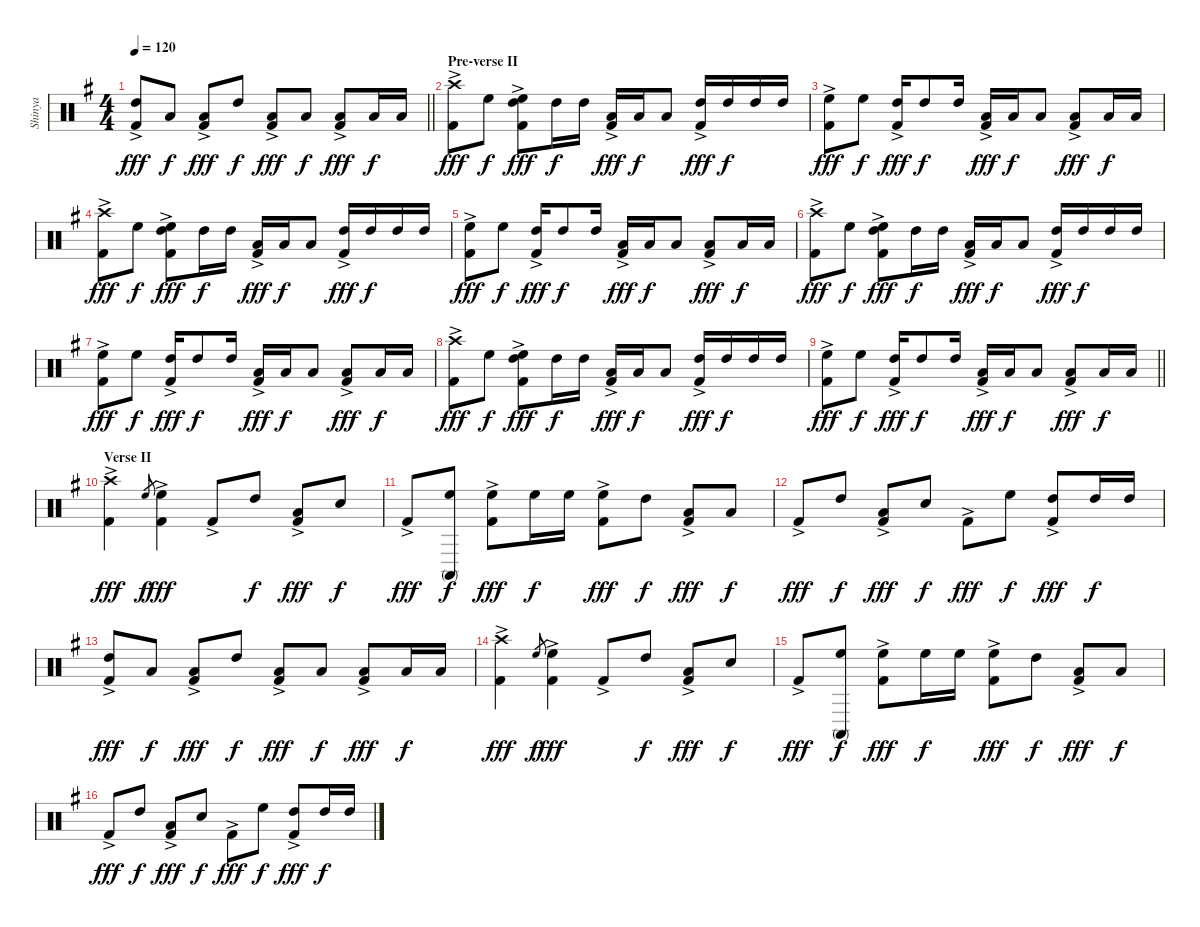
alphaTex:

\track ("Shinya" "Shinya") {instrument percussion}
\staff {score}
\articulation defaults
\ts (4 4)
\tempo 120
\clef neutral
\barLineRight lightlight
\ks g
("High Tom (hit)" "Kick (hit) 2"{ac}).8{dy fff} "Low Tom (hit)".8{dy f} ("Low Floor Tom (hit)" "Kick (hit) 2"{ac}).8{dy fff} "High Tom (hit)".8{dy f} ("Low Tom (hit)" "Kick (hit) 2"{ac}).8{dy fff} "Low Floor Tom (hit)".8{dy f} ("Low Floor Tom (hit)" "Kick (hit) 2"{ac}).8{dy fff} "Low Floor Tom (hit)".16{dy f} "Low Floor Tom (hit)".16 |
\section ("" "Pre-verse II")
("Crash high (hit)"{ac} "Kick (hit) 2"{ac}).8{dy fff} "High Floor Tom (hit)".8{dy f} ("High Floor Tom (hit)" "High Tom (hit)" "Kick (hit) 2"{ac}).8{dy fff} "High Tom (hit)".16{dy f} "High Tom (hit)".16 ("Low Tom (hit)" "Kick (hit) 2"{ac}).16{dy fff} "Low Tom (hit)".16{dy f} "Low Tom (hit)".8 ("High Tom (hit)" "Kick (hit) 2"{ac}).16{dy fff} "High Tom (hit)".16{dy f} "High Tom (hit)".16 "High Tom (hit)".16 |
("High Floor Tom (hit)" "Kick (hit) 2"{ac}).8{dy fff} "High Floor Tom (hit)".8{dy f} ("High Tom (hit)" "Kick (hit) 2"{ac}).16{dy fff} "High Tom (hit)".8{dy f} "High Tom (hit)".16 ("Low Tom (hit)" "Kick (hit) 2"{ac}).16{dy fff} "Low Tom (hit)".16{dy f} "Low Tom (hit)".8 ("Low Floor Tom (hit)" "Kick (hit) 2"{ac}).8{dy fff} "Low Floor Tom (hit)".16{dy f} "Low Floor Tom (hit)".16 |
("Crash high (hit)"{ac} "Kick (hit) 2"{ac}).8{dy fff} "High Floor Tom (hit)".8{dy f} ("High Floor Tom (hit)" "High Tom (hit)" "Kick (hit) 2"{ac}).8{dy fff} "High Tom (hit)".16{dy f} "High Tom (hit)".16 ("Low Tom (hit)" "Kick (hit) 2"{ac}).16{dy fff} "Low Tom (hit)".16{dy f} "Low Tom (hit)".8 ("High Tom (hit)" "Kick (hit) 2"{ac}).16{dy fff} "High Tom (hit)".16{dy f} "High Tom (hit)".16 "High Tom (hit)".16 |
("High Floor Tom (hit)" "Kick (hit) 2"{ac}).8{dy fff} "High Floor Tom (hit)".8{dy f} ("High Tom (hit)" "Kick (hit) 2"{ac}).16{dy fff} "High Tom (hit)".8{dy f} "High Tom (hit)".16 ("Low Tom (hit)" "Kick (hit) 2"{ac}).16{dy fff} "Low Tom (hit)".16{dy f} "Low Tom (hit)".8 ("Low Floor Tom (hit)" "Kick (hit) 2"{ac}).8{dy fff} "Low Floor Tom (hit)".16{dy f} "Low Floor Tom (hit)".16 |
("Crash high (hit)"{ac} "Kick (hit) 2"{ac}).8{dy fff} "High Floor Tom (hit)".8{dy f} ("High Floor Tom (hit)" "High Tom (hit)" "Kick (hit) 2"{ac}).8{dy fff} "High Tom (hit)".16{dy f} "High Tom (hit)".16 ("Low Tom (hit)" "Kick (hit) 2"{ac}).16{dy fff} "Low Tom (hit)".16{dy f} "Low Tom (hit)".8 ("High Tom (hit)" "Kick (hit) 2"{ac}).16{dy fff} "High Tom (hit)".16{dy f} "High Tom (hit)".16 "High Tom (hit)".16 |
("High Floor Tom (hit)" "Kick (hit) 2"{ac}).8{dy fff} "High Floor Tom (hit)".8{dy f} ("High Tom (hit)" "Kick (hit) 2"{ac}).16{dy fff} "High Tom (hit)".8{dy f} "High Tom (hit)".16 ("Low Tom (hit)" "Kick (hit) 2"{ac}).16{dy fff} "Low Tom (hit)".16{dy f} "Low Tom (hit)".8 ("Low Floor Tom (hit)" "Kick (hit) 2"{ac}).8{dy fff} "Low Floor Tom (hit)".16{dy f} "Low Floor Tom (hit)".16 |
("Crash high (hit)"{ac} "Kick (hit) 2"{ac}).8{dy fff} "High Floor Tom (hit)".8{dy f} ("High Floor Tom (hit)" "High Tom (hit)" "Kick (hit) 2"{ac}).8{dy fff} "High Tom (hit)".16{dy f} "High Tom (hit)".16 ("Low Tom (hit)" "Kick (hit) 2"{ac}).16{dy fff} "Low Tom (hit)".16{dy f} "Low Tom (hit)".8 ("High Tom (hit)" "Kick (hit) 2"{ac}).16{dy fff} "High Tom (hit)".16{dy f} "High Tom (hit)".16 "High Tom (hit)".16 |
\barLineRight lightlight
("High Floor Tom (hit)" "Kick (hit) 2"{ac}).8{dy fff} "High Floor Tom (hit)".8{dy f} ("High Tom (hit)" "Kick (hit) 2"{ac}).16{dy fff} "High Tom (hit)".8{dy f} "High Tom (hit)".16 ("Low Tom (hit)" "Kick (hit) 2"{ac}).16{dy fff} "Low Tom (hit)".16{dy f} "Low Tom (hit)".8 ("Low Floor Tom (hit)" "Kick (hit) 2"{ac}).8{dy fff} "Low Floor Tom (hit)".16{dy f} "Low Floor Tom (hit)".16 |
\section ("" "Verse II")
("Crash high (hit)"{ac} "Kick (hit) 2").4{dy fff} "High Floor Tom (hit)".8{gr dy f} ("High Floor Tom (hit)" "Kick (hit) 2"{ac}).4{dy fff} "Kick (hit) 2"{ac}.8 "High Tom (hit)".8{dy f} ("Low Tom (hit)" "Kick (hit) 2"{ac}).8{dy fff} "Snare (hit) 2".8{dy f} |
"Kick (hit) 2"{ac}.8{dy fff} ("Conga high (mute)" "High Floor Tom (hit)").8{dy f} ("High Floor Tom (hit)" "Kick (hit) 2"{ac}).8{dy fff} "High Floor Tom (hit)".16{dy f} "High Floor Tom (hit)".16 ("High Floor Tom (hit)" "Kick (hit) 2"{ac}).8{dy fff} "High Tom (hit)".8{dy f} ("Low Tom (hit)" "Kick (hit) 2"{ac}).8{dy fff} "Low Floor Tom (hit)".8{dy f} |
"Kick (hit) 2"{ac}.8{dy fff} "High Tom (hit)".8{dy f} ("Low Tom (hit)" "Kick (hit) 2"{ac}).8{dy fff} "Snare (hit) 2".8{dy f} "Kick (hit) 2"{ac}.8{dy fff} "High Floor Tom (hit)".8{dy f} ("High Tom (hit)" "Kick (hit) 2"{ac}).8{dy fff} "High Tom (hit)".16{dy f} "High Tom (hit)".16 |
("High Tom (hit)" "Kick (hit) 2"{ac}).8{dy fff} "Low Tom (hit)".8{dy f} ("Low Floor Tom (hit)" "Kick (hit) 2"{ac}).8{dy fff} "High Tom (hit)".8{dy f} ("Low Tom (hit)" "Kick (hit) 2"{ac}).8{dy fff} "Low Floor Tom (hit)".8{dy f} ("Low Floor Tom (hit)" "Kick (hit) 2"{ac}).8{dy fff} "Low Floor Tom (hit)".16{dy f} "Low Floor Tom (hit)".16 |
("Crash high (hit)"{ac} "Kick (hit) 2").4{dy fff} "High Floor Tom (hit)".8{gr dy f} ("High Floor Tom (hit)" "Kick (hit) 2"{ac}).4{dy fff} "Kick (hit) 2"{ac}.8 "High Tom (hit)".8{dy f} ("Low Tom (hit)" "Kick (hit) 2"{ac}).8{dy fff} "Snare (hit) 2".8{dy f} |
"Kick (hit) 2"{ac}.8{dy fff} ("Conga high (mute)" "High Floor Tom (hit)").8{dy f} ("High Floor Tom (hit)" "Kick (hit) 2"{ac}).8{dy fff} "High Floor Tom (hit)".16{dy f} "High Floor Tom (hit)".16 ("High Floor Tom (hit)" "Kick (hit) 2"{ac}).8{dy fff} "High Tom (hit)".8{dy f} ("Low Tom (hit)" "Kick (hit) 2"{ac}).8{dy fff} "Low Floor Tom (hit)".8{dy f} |
"Kick (hit) 2"{ac}.8{dy fff} "High Tom (hit)".8{dy f} ("Low Tom (hit)" "Kick (hit) 2"{ac}).8{dy fff} "Snare (hit) 2".8{dy f} "Kick (hit) 2"{ac}.8{dy fff} "High Floor Tom (hit)".8{dy f} ("High Tom (hit)" "Kick (hit) 2"{ac}).8{dy fff} "High Tom (hit)".16{dy f} "High Tom (hit)".16
